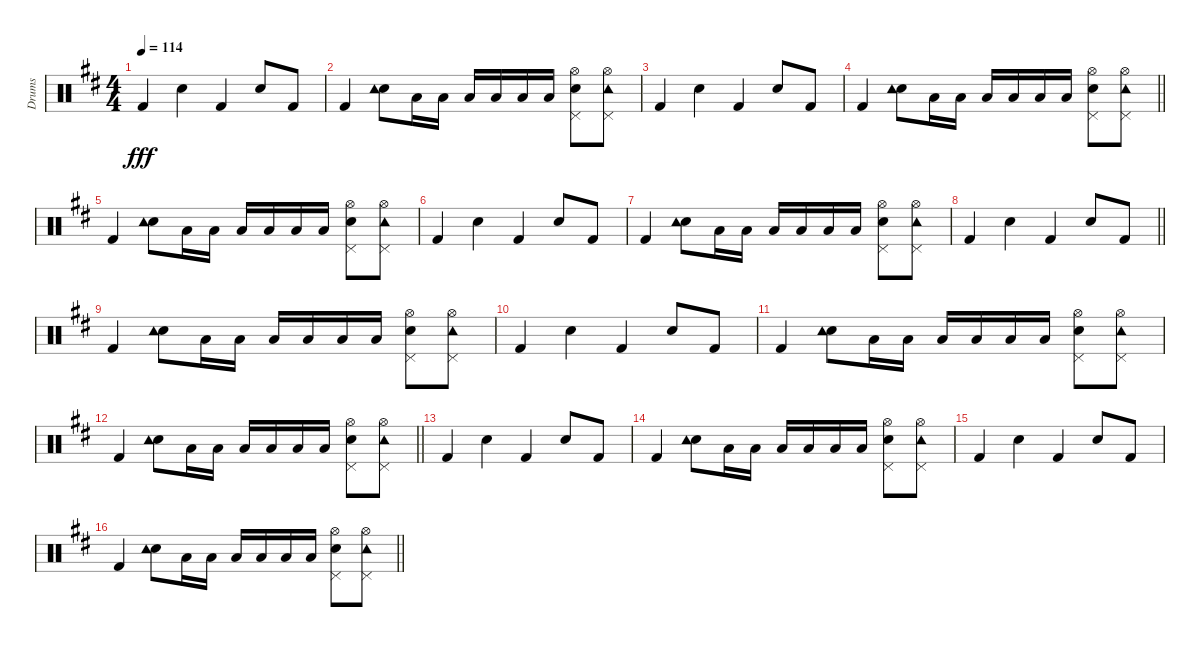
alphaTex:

\track ("Drums" "Drums") {instrument percussion}
\staff {score}
\articulation defaults
\ts (4 4)
\tempo 114
\clef neutral
\ks d "Kick (hit) 2".4{dy fff} "Snare (hit) 2".4 "Kick (hit) 2".4 "Snare (hit) 2".8 "Kick (hit) 2".8
|
"Kick (hit) 2".4 ("Snare (hit) 2" "Tambourine (hit)").8 "Low Tom (hit)".16 "Low Tom (hit)".16 "Low Tom (hit)".16 "Low Tom (hit)".16 "Low Tom (hit)".16 "Low Tom (hit)".16 ("Snare (hit) 2" "Pedal Hi-Hat (hit)" "Hi-Hat (open)").8 ("Hi-Hat (open)" "Pedal Hi-Hat (hit)" "Tambourine (hit)").8 |
"Kick (hit) 2".4 "Snare (hit) 2".4 "Kick (hit) 2".4 "Snare (hit) 2".8 "Kick (hit) 2".8 |
\barLineRight lightlight "Kick (hit) 2".4
("Snare (hit) 2" "Tambourine (hit)").8 "Low Tom (hit)".16 "Low Tom (hit)".16 "Low Tom (hit)".16 "Low Tom (hit)".16 "Low Tom (hit)".16 "Low Tom (hit)".16 ("Snare (hit) 2" "Pedal Hi-Hat (hit)" "Hi-Hat (open)").8 ("Hi-Hat (open)" "Pedal Hi-Hat (hit)" "Tambourine (hit)").8 |
"Kick (hit) 2".4 ("Snare (hit) 2" "Tambourine (hit)").8 "Low Tom (hit)".16 "Low Tom (hit)".16 "Low Tom (hit)".16 "Low Tom (hit)".16 "Low Tom (hit)".16 "Low Tom (hit)".16 ("Snare (hit) 2" "Pedal Hi-Hat (hit)" "Hi-Hat (open)").8 ("Hi-Hat (open)" "Pedal Hi-Hat (hit)" "Tambourine (hit)").8 |
"Kick (hit) 2".4 "Snare (hit) 2".4 "Kick (hit) 2".4 "Snare (hit) 2".8 "Kick (hit) 2".8 |
"Kick (hit) 2".4 ("Snare (hit) 2" "Tambourine (hit)").8 "Low Tom (hit)".16 "Low Tom (hit)".16 "Low Tom (hit)".16 "Low Tom (hit)".16 "Low Tom (hit)".16 "Low Tom (hit)".16 ("Snare (hit) 2" "Pedal Hi-Hat (hit)" "Hi-Hat (open)").8 ("Hi-Hat (open)" "Pedal Hi-Hat (hit)" "Tambourine (hit)").8 |
\barLineRight lightlight "Kick (hit) 2".4 "Snare (hit) 2".4 "Kick (hit) 2".4 "Snare (hit) 2".8 "Kick (hit) 2".8
|
"Kick (hit) 2".4 ("Snare (hit) 2" "Tambourine (hit)").8 "Low Tom (hit)".16 "Low Tom (hit)".16 "Low Tom (hit)".16 "Low Tom (hit)".16 "Low Tom (hit)".16 "Low Tom (hit)".16 ("Snare (hit) 2" "Pedal Hi-Hat (hit)" "Hi-Hat (open)").8 ("Hi-Hat (open)" "Pedal Hi-Hat (hit)" "Tambourine (hit)").8 |
"Kick (hit) 2".4 "Snare (hit) 2".4 "Kick (hit) 2".4 "Snare (hit) 2".8 "Kick (hit) 2".8 |
"Kick (hit) 2".4 ("Snare (hit) 2" "Tambourine (hit)").8 "Low Tom (hit)".16 "Low Tom (hit)".16 "Low Tom (hit)".16 "Low Tom (hit)".16 "Low Tom (hit)".16 "Low Tom (hit)".16 ("Snare (hit) 2" "Pedal Hi-Hat (hit)" "Hi-Hat (open)").8 ("Hi-Hat (open)" "Pedal Hi-Hat (hit)" "Tambourine (hit)").8 |
\barLineRight lightlight "Kick (hit) 2".4
("Snare (hit) 2" "Tambourine (hit)").8 "Low Tom (hit)".16 "Low Tom (hit)".16 "Low Tom (hit)".16 "Low Tom (hit)".16 "Low Tom (hit)".16 "Low Tom (hit)".16 ("Snare (hit) 2" "Pedal Hi-Hat (hit)" "Hi-Hat (open)").8 ("Hi-Hat (open)" "Pedal Hi-Hat (hit)" "Tambourine (hit)").8 |
"Kick (hit) 2".4 "Snare (hit) 2".4 "Kick (hit) 2".4 "Snare (hit) 2".8 "Kick (hit) 2".8 |
"Kick (hit) 2".4 ("Snare (hit) 2" "Tambourine (hit)").8 "Low Tom (hit)".16 "Low Tom (hit)".16 "Low Tom (hit)".16 "Low Tom (hit)".16 "Low Tom (hit)".16 "Low Tom (hit)".16 ("Snare (hit) 2" "Pedal Hi-Hat (hit)" "Hi-Hat (open)").8 ("Hi-Hat (open)" "Pedal Hi-Hat (hit)" "Tambourine (hit)").8 |
"Kick (hit) 2".4 "Snare (hit) 2".4 "Kick (hit) 2".4 "Snare (hit) 2".8 "Kick (hit) 2".8 |
\barLineRight lightlight "Kick (hit) 2".4
("Snare (hit) 2" "Tambourine (hit)").8 "Low Tom (hit)".16 "Low Tom (hit)".16 "Low Tom (hit)".16 "Low Tom (hit)".16 "Low Tom (hit)".16 "Low Tom (hit)".16 ("Snare (hit) 2" "Pedal Hi-Hat (hit)" "Hi-Hat (open)").8 ("Hi-Hat (open)" "Pedal Hi-Hat (hit)" "Tambourine (hit)").8
